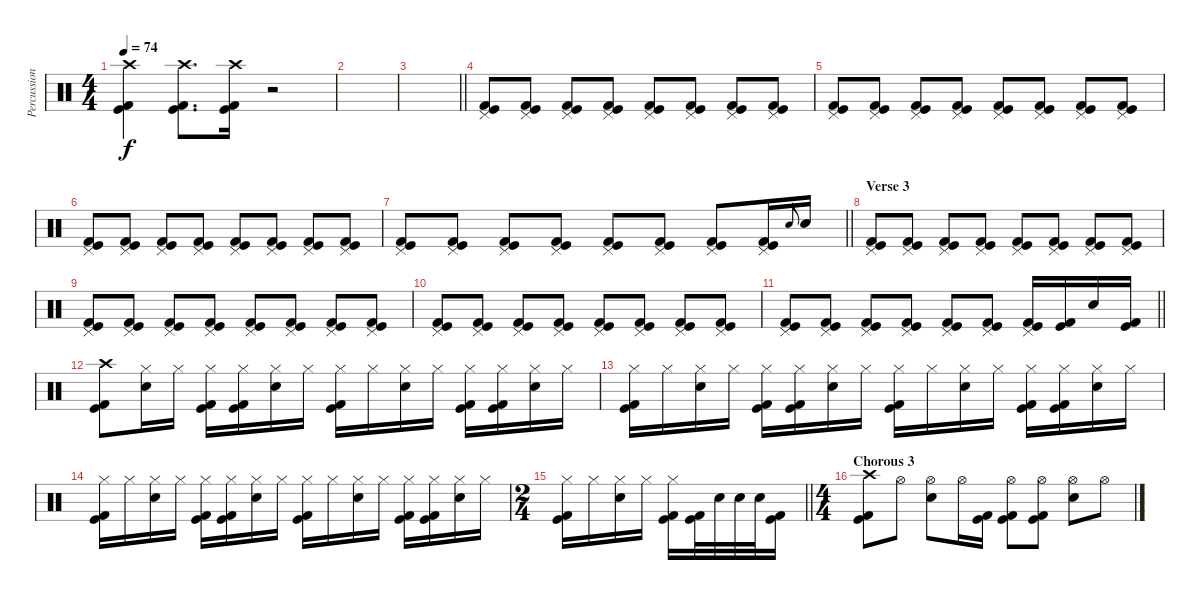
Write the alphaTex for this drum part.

\track ("Percussion" "Percussion") {instrument percussion}
\staff {score}
\articulation defaults
\ts (4 4)
\tempo 74
\clef neutral
\ks c
("Crash high (hit)" "Kick (hit)" "Kick (hit) 2").4{dy f} ("Crash high (hit)" "Kick (hit)" "Kick (hit) 2").8{d} ("Crash high (hit)" "Kick (hit)" "Kick (hit) 2").16 r.2 |
|
\barLineRight lightlight
|
\section ("" "")
("Pedal Hi-Hat (hit)" "Kick (hit)" "Kick (hit) 2").8 ("Pedal Hi-Hat (hit)" "Kick (hit)" "Kick (hit) 2").8 ("Pedal Hi-Hat (hit)" "Kick (hit)" "Kick (hit) 2").8 ("Pedal Hi-Hat (hit)" "Kick (hit)" "Kick (hit) 2").8 ("Pedal Hi-Hat (hit)" "Kick (hit)" "Kick (hit) 2").8 ("Pedal Hi-Hat (hit)" "Kick (hit)" "Kick (hit) 2").8 ("Pedal Hi-Hat (hit)" "Kick (hit)" "Kick (hit) 2").8 ("Pedal Hi-Hat (hit)" "Kick (hit)" "Kick (hit) 2").8 |
("Pedal Hi-Hat (hit)" "Kick (hit)" "Kick (hit) 2").8 ("Pedal Hi-Hat (hit)" "Kick (hit)" "Kick (hit) 2").8 ("Pedal Hi-Hat (hit)" "Kick (hit)" "Kick (hit) 2").8 ("Pedal Hi-Hat (hit)" "Kick (hit)" "Kick (hit) 2").8 ("Pedal Hi-Hat (hit)" "Kick (hit)" "Kick (hit) 2").8 ("Pedal Hi-Hat (hit)" "Kick (hit)" "Kick (hit) 2").8 ("Pedal Hi-Hat (hit)" "Kick (hit)" "Kick (hit) 2").8 ("Pedal Hi-Hat (hit)" "Kick (hit)" "Kick (hit) 2").8 |
("Pedal Hi-Hat (hit)" "Kick (hit)" "Kick (hit) 2").8 ("Pedal Hi-Hat (hit)" "Kick (hit)" "Kick (hit) 2").8 ("Pedal Hi-Hat (hit)" "Kick (hit)" "Kick (hit) 2").8 ("Pedal Hi-Hat (hit)" "Kick (hit)" "Kick (hit) 2").8 ("Pedal Hi-Hat (hit)" "Kick (hit)" "Kick (hit) 2").8 ("Pedal Hi-Hat (hit)" "Kick (hit)" "Kick (hit) 2").8 ("Pedal Hi-Hat (hit)" "Kick (hit)" "Kick (hit) 2").8 ("Pedal Hi-Hat (hit)" "Kick (hit)" "Kick (hit) 2").8 |
\barLineRight lightlight
("Pedal Hi-Hat (hit)" "Kick (hit)" "Kick (hit) 2").8 ("Pedal Hi-Hat (hit)" "Kick (hit)" "Kick (hit) 2").8 ("Pedal Hi-Hat (hit)" "Kick (hit)" "Kick (hit) 2").8 ("Pedal Hi-Hat (hit)" "Kick (hit)" "Kick (hit) 2").8 ("Pedal Hi-Hat (hit)" "Kick (hit)" "Kick (hit) 2").8 ("Pedal Hi-Hat (hit)" "Kick (hit)" "Kick (hit) 2").8 ("Pedal Hi-Hat (hit)" "Kick (hit)" "Kick (hit) 2").8 ("Pedal Hi-Hat (hit)" "Kick (hit)" "Kick (hit) 2").16 "Electric Snare (hit)".8{gr onbeat} "Electric Snare (hit)".16 |
\section ("" "Verse 3")
("Pedal Hi-Hat (hit)" "Kick (hit)" "Kick (hit) 2").8 ("Pedal Hi-Hat (hit)" "Kick (hit)" "Kick (hit) 2").8 ("Pedal Hi-Hat (hit)" "Kick (hit)" "Kick (hit) 2").8 ("Pedal Hi-Hat (hit)" "Kick (hit)" "Kick (hit) 2").8 ("Pedal Hi-Hat (hit)" "Kick (hit)" "Kick (hit) 2").8 ("Pedal Hi-Hat (hit)" "Kick (hit)" "Kick (hit) 2").8 ("Pedal Hi-Hat (hit)" "Kick (hit)" "Kick (hit) 2").8 ("Pedal Hi-Hat (hit)" "Kick (hit)" "Kick (hit) 2").8 |
("Pedal Hi-Hat (hit)" "Kick (hit)" "Kick (hit) 2").8 ("Pedal Hi-Hat (hit)" "Kick (hit)" "Kick (hit) 2").8 ("Pedal Hi-Hat (hit)" "Kick (hit)" "Kick (hit) 2").8 ("Pedal Hi-Hat (hit)" "Kick (hit)" "Kick (hit) 2").8 ("Pedal Hi-Hat (hit)" "Kick (hit)" "Kick (hit) 2").8 ("Pedal Hi-Hat (hit)" "Kick (hit)" "Kick (hit) 2").8 ("Pedal Hi-Hat (hit)" "Kick (hit)" "Kick (hit) 2").8 ("Pedal Hi-Hat (hit)" "Kick (hit)" "Kick (hit) 2").8 |
("Pedal Hi-Hat (hit)" "Kick (hit)" "Kick (hit) 2").8 ("Pedal Hi-Hat (hit)" "Kick (hit)" "Kick (hit) 2").8 ("Pedal Hi-Hat (hit)" "Kick (hit)" "Kick (hit) 2").8 ("Pedal Hi-Hat (hit)" "Kick (hit)" "Kick (hit) 2").8 ("Pedal Hi-Hat (hit)" "Kick (hit)" "Kick (hit) 2").8 ("Pedal Hi-Hat (hit)" "Kick (hit)" "Kick (hit) 2").8 ("Pedal Hi-Hat (hit)" "Kick (hit)" "Kick (hit) 2").8 ("Pedal Hi-Hat (hit)" "Kick (hit)" "Kick (hit) 2").8 |
\barLineRight lightlight
("Pedal Hi-Hat (hit)" "Kick (hit)" "Kick (hit) 2").8 ("Pedal Hi-Hat (hit)" "Kick (hit)" "Kick (hit) 2").8 ("Pedal Hi-Hat (hit)" "Kick (hit)" "Kick (hit) 2").8 ("Pedal Hi-Hat (hit)" "Kick (hit)" "Kick (hit) 2").8 ("Pedal Hi-Hat (hit)" "Kick (hit)" "Kick (hit) 2").8 ("Pedal Hi-Hat (hit)" "Kick (hit)" "Kick (hit) 2").8 ("Pedal Hi-Hat (hit)" "Kick (hit)" "Kick (hit) 2").16 ("Kick (hit)" "Kick (hit) 2").16 "Electric Snare (hit)".16 ("Kick (hit)" "Kick (hit) 2").16 |
\section ("" "")
("Crash high (hit)" "Kick (hit)" "Kick (hit) 2").8 ("Hi-Hat (closed)" "Electric Snare (hit)").16 "Hi-Hat (closed)".16 ("Hi-Hat (closed)" "Kick (hit)" "Kick (hit) 2").16 ("Hi-Hat (closed)" "Kick (hit)" "Kick (hit) 2").16 ("Hi-Hat (closed)" "Electric Snare (hit)").16 "Hi-Hat (closed)".16 ("Hi-Hat (closed)" "Kick (hit)" "Kick (hit) 2").16 "Hi-Hat (closed)".16 ("Hi-Hat (closed)" "Electric Snare (hit)").16 "Hi-Hat (closed)".16 ("Hi-Hat (closed)" "Kick (hit)" "Kick (hit) 2").16 ("Hi-Hat (closed)" "Kick (hit)" "Kick (hit) 2").16 ("Hi-Hat (closed)" "Electric Snare (hit)").16 "Hi-Hat (closed)".16 |
("Hi-Hat (closed)" "Kick (hit)" "Kick (hit) 2").16 "Hi-Hat (closed)".16 ("Hi-Hat (closed)" "Electric Snare (hit)").16 "Hi-Hat (closed)".16 ("Hi-Hat (closed)" "Kick (hit)" "Kick (hit) 2").16 ("Hi-Hat (closed)" "Kick (hit)" "Kick (hit) 2").16 ("Hi-Hat (closed)" "Electric Snare (hit)").16 "Hi-Hat (closed)".16 ("Hi-Hat (closed)" "Kick (hit)" "Kick (hit) 2").16 "Hi-Hat (closed)".16 ("Hi-Hat (closed)" "Electric Snare (hit)").16 "Hi-Hat (closed)".16 ("Hi-Hat (closed)" "Kick (hit)" "Kick (hit) 2").16 ("Hi-Hat (closed)" "Kick (hit)" "Kick (hit) 2").16 ("Hi-Hat (closed)" "Electric Snare (hit)").16 "Hi-Hat (closed)".16 |
("Hi-Hat (closed)" "Kick (hit)" "Kick (hit) 2").16 "Hi-Hat (closed)".16 ("Hi-Hat (closed)" "Electric Snare (hit)").16 "Hi-Hat (closed)".16 ("Hi-Hat (closed)" "Kick (hit)" "Kick (hit) 2").16 ("Hi-Hat (closed)" "Kick (hit)" "Kick (hit) 2").16 ("Hi-Hat (closed)" "Electric Snare (hit)").16 "Hi-Hat (closed)".16 ("Hi-Hat (closed)" "Kick (hit)" "Kick (hit) 2").16 "Hi-Hat (closed)".16 ("Hi-Hat (closed)" "Electric Snare (hit)").16 "Hi-Hat (closed)".16 ("Hi-Hat (closed)" "Kick (hit)" "Kick (hit) 2").16 ("Hi-Hat (closed)" "Kick (hit)" "Kick (hit) 2").16 ("Hi-Hat (closed)" "Electric Snare (hit)").16 "Hi-Hat (closed)".16 |
\ts (2 4)
\barLineRight lightlight
("Hi-Hat (closed)" "Kick (hit)" "Kick (hit) 2").16 "Hi-Hat (closed)".16 ("Hi-Hat (closed)" "Electric Snare (hit)").16 "Hi-Hat (closed)".16 ("Hi-Hat (closed)" "Kick (hit)" "Kick (hit) 2").16 ("Kick (hit)" "Kick (hit) 2").32 "Electric Snare (hit)".32 "Electric Snare (hit)".32 "Electric Snare (hit)".32 ("Kick (hit)" "Kick (hit) 2").16 |
\ts (4 4)
\section ("" "Chorous 3")
("Crash high (hit)" "Kick (hit)" "Kick (hit) 2").8 "Hi-Hat (open)".8 ("Hi-Hat (open)" "Electric Snare (hit)").8 "Hi-Hat (open)".16 ("Kick (hit)" "Kick (hit) 2").16 ("Hi-Hat (open)" "Kick (hit)" "Kick (hit) 2").8 ("Hi-Hat (open)" "Kick (hit)" "Kick (hit) 2").8 ("Hi-Hat (open)" "Electric Snare (hit)").8 "Hi-Hat (open)".8
